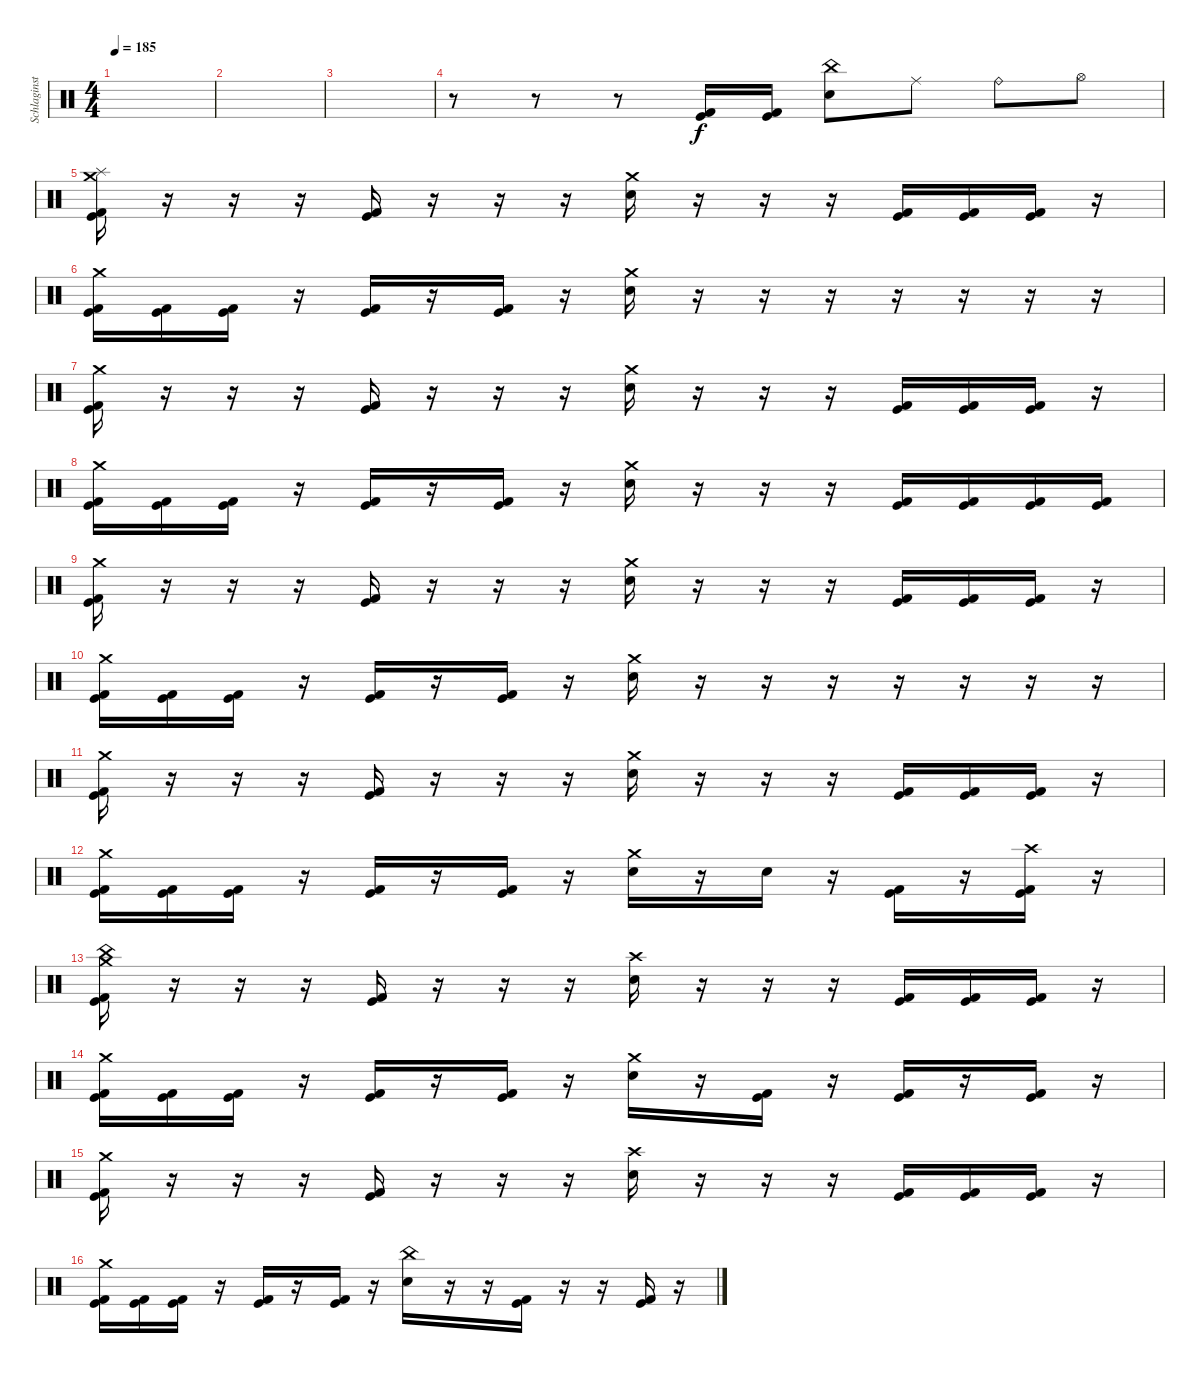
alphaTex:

\track ("Schlaginstrumente - Auswahl" "Schlaginst") {instrument percussion}
\staff {score}
\articulation defaults
\ts (4 4)
\tempo 185
\clef neutral
\ks c
|
|
|
r.8 r.8 r.8 ("Kick (hit)" "Kick (hit) 2").16 ("Kick (hit)" "Kick (hit) 2").16 ("China (hit)" "Electric Snare (hit)").8 "Ride (middle)".8 "Ride (bell)".8 "Hi-Hat (open)".8 |
("Crash medium (hit)" "Splash (hit)" "Kick (hit)" "Kick (hit) 2").16 r.16 r.16 r.16 ("Kick (hit)" "Kick (hit) 2").16 r.16 r.16 r.16 ("Crash medium (hit)" "Electric Snare (hit)").16 r.16 r.16 r.16 ("Kick (hit)" "Kick (hit) 2").16 ("Kick (hit)" "Kick (hit) 2").16 ("Kick (hit)" "Kick (hit) 2").16 r.16 |
("Crash medium (hit)" "Kick (hit)" "Kick (hit) 2").16 ("Kick (hit)" "Kick (hit) 2").16 ("Kick (hit)" "Kick (hit) 2").16 r.16 ("Kick (hit)" "Kick (hit) 2").16 r.16 ("Kick (hit)" "Kick (hit) 2").16 r.16 ("Crash medium (hit)" "Electric Snare (hit)").16 r.16 r.16 r.16 r.16 r.16 r.16 r.16 |
("Crash medium (hit)" "Kick (hit)" "Kick (hit) 2").16 r.16 r.16 r.16 ("Kick (hit)" "Kick (hit) 2").16 r.16 r.16 r.16 ("Crash medium (hit)" "Electric Snare (hit)").16 r.16 r.16 r.16 ("Kick (hit)" "Kick (hit) 2").16 ("Kick (hit)" "Kick (hit) 2").16 ("Kick (hit)" "Kick (hit) 2").16 r.16 |
("Crash medium (hit)" "Kick (hit)" "Kick (hit) 2").16 ("Kick (hit)" "Kick (hit) 2").16 ("Kick (hit)" "Kick (hit) 2").16 r.16 ("Kick (hit)" "Kick (hit) 2").16 r.16 ("Kick (hit)" "Kick (hit) 2").16 r.16 ("Crash medium (hit)" "Electric Snare (hit)").16 r.16 r.16 r.16 ("Kick (hit)" "Kick (hit) 2").16 ("Kick (hit)" "Kick (hit) 2").16 ("Kick (hit)" "Kick (hit) 2").16 ("Kick (hit)" "Kick (hit) 2").16 |
("Crash medium (hit)" "Kick (hit)" "Kick (hit) 2").16 r.16 r.16 r.16 ("Kick (hit)" "Kick (hit) 2").16 r.16 r.16 r.16 ("Crash medium (hit)" "Electric Snare (hit)").16 r.16 r.16 r.16 ("Kick (hit)" "Kick (hit) 2").16 ("Kick (hit)" "Kick (hit) 2").16 ("Kick (hit)" "Kick (hit) 2").16 r.16 |
("Crash medium (hit)" "Kick (hit)" "Kick (hit) 2").16 ("Kick (hit)" "Kick (hit) 2").16 ("Kick (hit)" "Kick (hit) 2").16 r.16 ("Kick (hit)" "Kick (hit) 2").16 r.16 ("Kick (hit)" "Kick (hit) 2").16 r.16 ("Crash medium (hit)" "Electric Snare (hit)").16 r.16 r.16 r.16 r.16 r.16 r.16 r.16 |
("Crash medium (hit)" "Kick (hit)" "Kick (hit) 2").16 r.16 r.16 r.16 ("Kick (hit)" "Kick (hit) 2").16 r.16 r.16 r.16 ("Crash medium (hit)" "Electric Snare (hit)").16 r.16 r.16 r.16 ("Kick (hit)" "Kick (hit) 2").16 ("Kick (hit)" "Kick (hit) 2").16 ("Kick (hit)" "Kick (hit) 2").16 r.16 |
("Crash medium (hit)" "Kick (hit)" "Kick (hit) 2").16 ("Kick (hit)" "Kick (hit) 2").16 ("Kick (hit)" "Kick (hit) 2").16 r.16 ("Kick (hit)" "Kick (hit) 2").16 r.16 ("Kick (hit)" "Kick (hit) 2").16 r.16 ("Crash medium (hit)" "Electric Snare (hit)").16 r.16 "Electric Snare (hit)".16 r.16 ("Kick (hit)" "Kick (hit) 2").16 r.16 ("Crash high (hit)" "Kick (hit)" "Kick (hit) 2").16 r.16 |
("Crash medium (hit)" "China (hit)" "Kick (hit)" "Kick (hit) 2").16 r.16 r.16 r.16 ("Kick (hit)" "Kick (hit) 2").16 r.16 r.16 r.16 ("Crash high (hit)" "Electric Snare (hit)").16 r.16 r.16 r.16 ("Kick (hit)" "Kick (hit) 2").16 ("Kick (hit)" "Kick (hit) 2").16 ("Kick (hit)" "Kick (hit) 2").16 r.16 |
("Crash medium (hit)" "Kick (hit)" "Kick (hit) 2").16 ("Kick (hit)" "Kick (hit) 2").16 ("Kick (hit)" "Kick (hit) 2").16 r.16 ("Kick (hit)" "Kick (hit) 2").16 r.16 ("Kick (hit)" "Kick (hit) 2").16 r.16 ("Crash medium (hit)" "Electric Snare (hit)").16 r.16 ("Kick (hit)" "Kick (hit) 2").16 r.16 ("Kick (hit)" "Kick (hit) 2").16 r.16 ("Kick (hit)" "Kick (hit) 2").16 r.16 |
("Crash medium (hit)" "Kick (hit)" "Kick (hit) 2").16 r.16 r.16 r.16 ("Kick (hit)" "Kick (hit) 2").16 r.16 r.16 r.16 ("Crash high (hit)" "Electric Snare (hit)").16 r.16 r.16 r.16 ("Kick (hit)" "Kick (hit) 2").16 ("Kick (hit)" "Kick (hit) 2").16 ("Kick (hit)" "Kick (hit) 2").16 r.16 |
("Crash medium (hit)" "Kick (hit)" "Kick (hit) 2").16 ("Kick (hit)" "Kick (hit) 2").16 ("Kick (hit)" "Kick (hit) 2").16 r.16 ("Kick (hit)" "Kick (hit) 2").16 r.16 ("Kick (hit)" "Kick (hit) 2").16 r.16 ("China (hit)" "Electric Snare (hit)").16 r.16 r.16 ("Kick (hit)" "Kick (hit) 2").16 r.16 r.16 ("Kick (hit)" "Kick (hit) 2").16 r.16
